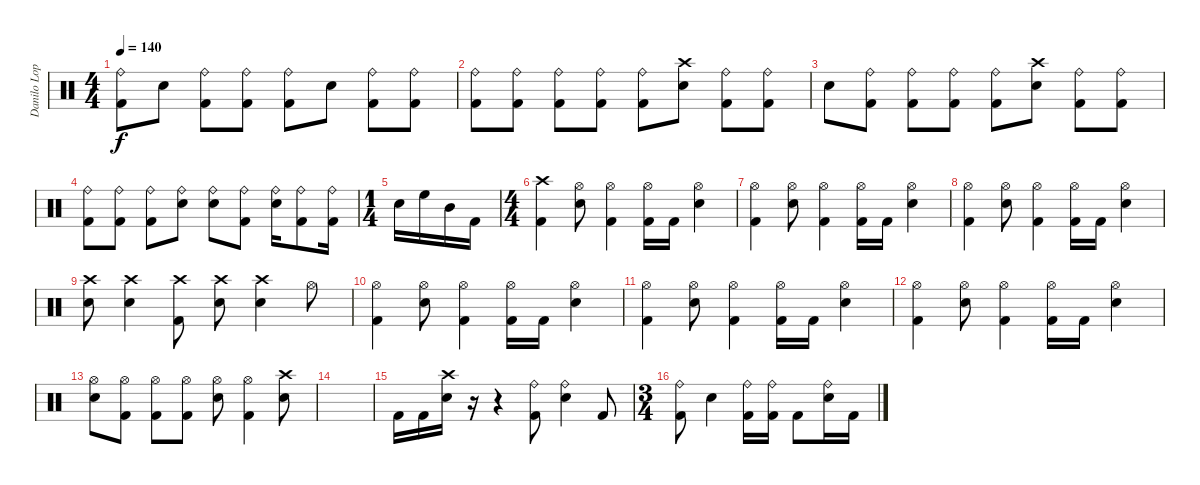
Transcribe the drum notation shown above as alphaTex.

\track ("Danilo Lopes" "Danilo Lop") {instrument percussion}
\staff {score}
\articulation defaults
\ts (4 4)
\tempo 140
\clef neutral
\ks c
("Ride (bell)" "Kick (hit) 2").8{dy f} "Snare (hit) 2".8 ("Ride (bell)" "Kick (hit) 2").8 ("Ride (bell)" "Kick (hit) 2").8 ("Ride (bell)" "Kick (hit) 2").8 "Snare (hit) 2".8 ("Ride (bell)" "Kick (hit) 2").8 ("Ride (bell)" "Kick (hit) 2").8 |
("Ride (bell)" "Kick (hit) 2").8 ("Ride (bell)" "Kick (hit) 2").8 ("Ride (bell)" "Kick (hit) 2").8 ("Ride (bell)" "Kick (hit) 2").8 ("Ride (bell)" "Kick (hit) 2").8 ("Crash high (hit)" "Snare (hit) 2").8 ("Ride (bell)" "Kick (hit) 2").8 ("Ride (bell)" "Kick (hit) 2").8 |
"Snare (hit) 2".8 ("Ride (bell)" "Kick (hit) 2").8 ("Ride (bell)" "Kick (hit) 2").8 ("Ride (bell)" "Kick (hit) 2").8 ("Ride (bell)" "Kick (hit) 2").8 ("Crash high (hit)" "Snare (hit) 2").8 ("Ride (bell)" "Kick (hit) 2").8 ("Ride (bell)" "Kick (hit) 2").8 |
("Ride (bell)" "Kick (hit) 2").8 ("Ride (bell)" "Kick (hit) 2").8 ("Ride (bell)" "Kick (hit) 2").8 ("Ride (bell)" "Snare (hit) 2").8 ("Ride (bell)" "Snare (hit) 2").8 ("Ride (bell)" "Kick (hit) 2").8 ("Ride (bell)" "Snare (hit) 2").16 ("Ride (bell)" "Kick (hit) 2").8 ("Ride (bell)" "Kick (hit) 2").16 |
\ts (1 4)
"Snare (hit) 2".16 "High Floor Tom (hit)".16 "Mid Tom (hit)".16 "Kick (hit) 2".16 |
\ts (4 4)
("Crash high (hit)" "Kick (hit) 2").4 ("Hi-Hat (open)" "Snare (hit) 2").8 ("Hi-Hat (open)" "Kick (hit) 2").4 ("Hi-Hat (open)" "Kick (hit) 2").16 "Kick (hit) 2".16 ("Hi-Hat (open)" "Snare (hit) 2").4 |
("Hi-Hat (open)" "Kick (hit) 2").4 ("Hi-Hat (open)" "Snare (hit) 2").8 ("Hi-Hat (open)" "Kick (hit) 2").4 ("Hi-Hat (open)" "Kick (hit) 2").16 "Kick (hit) 2".16 ("Hi-Hat (open)" "Snare (hit) 2").4 |
("Hi-Hat (open)" "Kick (hit) 2").4 ("Hi-Hat (open)" "Snare (hit) 2").8 ("Hi-Hat (open)" "Kick (hit) 2").4 ("Hi-Hat (open)" "Kick (hit) 2").16 "Kick (hit) 2".16 ("Hi-Hat (open)" "Snare (hit) 2").4 |
("Snare (hit) 2" "Crash high (hit)").8 ("Snare (hit) 2" "Crash high (hit)").4 ("Kick (hit) 2" "Crash high (hit)").8 ("Snare (hit) 2" "Crash high (hit)").8 ("Snare (hit) 2" "Crash high (hit)").4 "Hi-Hat (open)".8 |
("Hi-Hat (open)" "Kick (hit) 2").4 ("Hi-Hat (open)" "Snare (hit) 2").8 ("Hi-Hat (open)" "Kick (hit) 2").4 ("Hi-Hat (open)" "Kick (hit) 2").16 "Kick (hit) 2".16 ("Hi-Hat (open)" "Snare (hit) 2").4 |
("Hi-Hat (open)" "Kick (hit) 2").4 ("Hi-Hat (open)" "Snare (hit) 2").8 ("Hi-Hat (open)" "Kick (hit) 2").4 ("Hi-Hat (open)" "Kick (hit) 2").16 "Kick (hit) 2".16 ("Hi-Hat (open)" "Snare (hit) 2").4 |
("Hi-Hat (open)" "Kick (hit) 2").4 ("Hi-Hat (open)" "Snare (hit) 2").8 ("Hi-Hat (open)" "Kick (hit) 2").4 ("Hi-Hat (open)" "Kick (hit) 2").16 "Kick (hit) 2".16 ("Hi-Hat (open)" "Snare (hit) 2").4 |
("Hi-Hat (open)" "Snare (hit) 2").8 ("Hi-Hat (open)" "Kick (hit) 2").8 ("Hi-Hat (open)" "Kick (hit) 2").8 ("Hi-Hat (open)" "Kick (hit) 2").8 ("Hi-Hat (open)" "Snare (hit) 2").8 ("Hi-Hat (open)" "Kick (hit) 2").4 ("Crash high (hit)" "Snare (hit) 2").8 |
|
"Kick (hit) 2".16 "Kick (hit) 2".16 ("Crash high (hit)" "Snare (hit) 2").16 r.16 r.4 ("Ride (bell)" "Kick (hit) 2").8 ("Ride (bell)" "Snare (hit) 2").4 "Kick (hit) 2".8 |
\ts (3 4)
("Ride (bell)" "Kick (hit) 2").8 "Snare (hit) 2".4 ("Ride (bell)" "Kick (hit) 2").16 ("Ride (bell)" "Kick (hit) 2").16 "Kick (hit) 2".8 ("Ride (bell)" "Snare (hit) 2").16 "Kick (hit) 2".16
